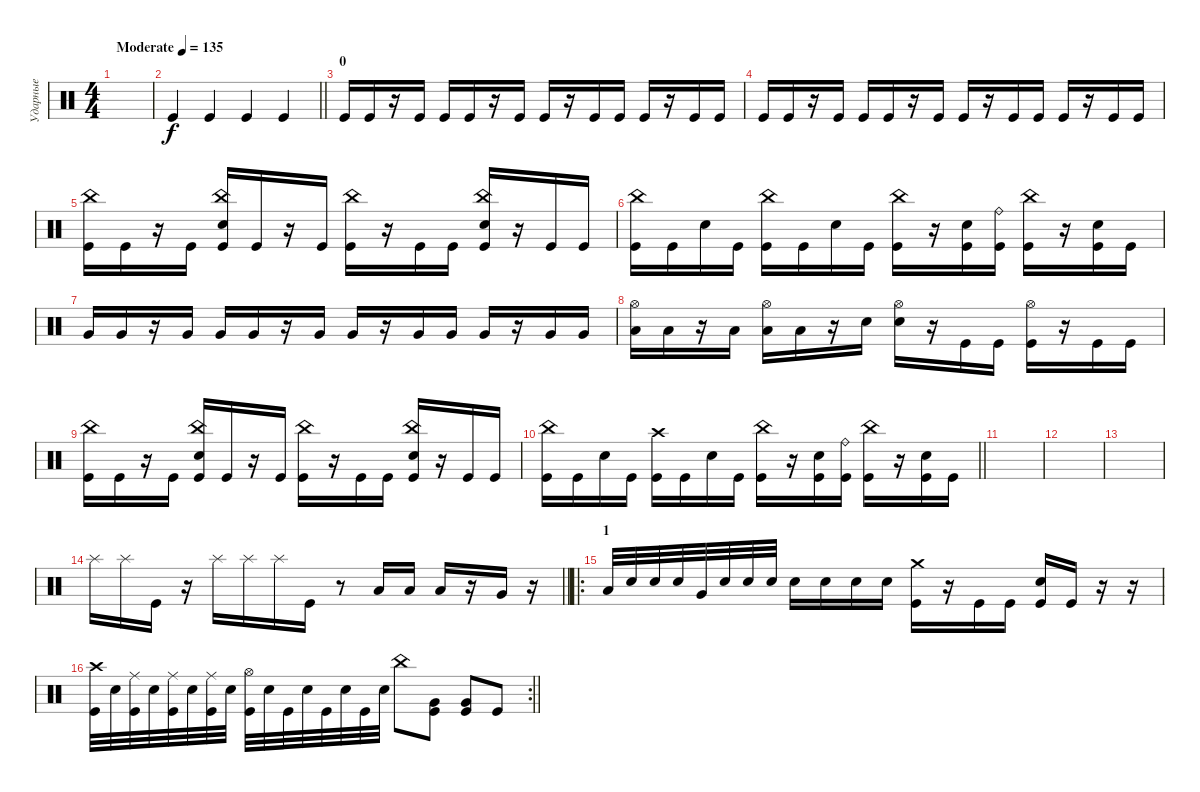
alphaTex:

\track ("Ударные" "Ударные") {instrument percussion}
\staff {score}
\articulation defaults
\ts (4 4)
\tempo (135 "Moderate")
\clef neutral
\ks c
|
\barLineRight lightlight "Kick (hit)".4 "Kick (hit)".4 "Kick (hit)".4 "Kick (hit)".4
|
\section ("" "0")
"Kick (hit)".16 "Kick (hit)".16 r.16 "Kick (hit)".16 "Kick (hit)".16 "Kick (hit)".16 r.16 "Kick (hit)".16 "Kick (hit)".16 r.16 "Kick (hit)".16 "Kick (hit)".16 "Kick (hit)".16 r.16 "Kick (hit)".16 "Kick (hit)".16 |
"Kick (hit)".16 "Kick (hit)".16 r.16 "Kick (hit)".16 "Kick (hit)".16 "Kick (hit)".16 r.16 "Kick (hit)".16 "Kick (hit)".16 r.16 "Kick (hit)".16 "Kick (hit)".16 "Kick (hit)".16 r.16 "Kick (hit)".16 "Kick (hit)".16 |
("China (hit)" "Kick (hit)").16 "Kick (hit)".16 r.16 "Kick (hit)".16 ("China (hit)" "Electric Snare (hit)" "Kick (hit)").16 "Kick (hit)".16 r.16 "Kick (hit)".16 ("China (hit)" "Kick (hit)").16 r.16 "Kick (hit)".16 "Kick (hit)".16 ("China (hit)" "Electric Snare (hit)" "Kick (hit)").16 r.16 "Kick (hit)".16 "Kick (hit)".16 |
("China (hit)" "Kick (hit)").16 "Kick (hit)".16 "Electric Snare (hit)".16 "Kick (hit)".16 ("China (hit)" "Kick (hit)").16 "Kick (hit)".16 "Electric Snare (hit)".16 "Kick (hit)".16 ("China (hit)" "Kick (hit)").16 r.16 ("Electric Snare (hit)" "Kick (hit)").16 ("Ride (bell)" "Kick (hit)").16 ("China (hit)" "Kick (hit)").16 r.16 ("Electric Snare (hit)" "Kick (hit)").16 "Kick (hit)".16 |
"Very Low Tom (hit)".16 "Very Low Tom (hit)".16 r.16 "Very Low Tom (hit)".16 "Very Low Tom (hit)".16 "Very Low Tom (hit)".16 r.16 "Very Low Tom (hit)".16 "Very Low Tom (hit)".16 r.16 "Very Low Tom (hit)".16 "Very Low Tom (hit)".16 "Very Low Tom (hit)".16 r.16 "Very Low Tom (hit)".16 "Very Low Tom (hit)".16 |
("Hi-Hat (open)" "Low Floor Tom (hit)").16 "Low Floor Tom (hit)".16 r.16 "Low Floor Tom (hit)".16 ("Hi-Hat (open)" "Low Floor Tom (hit)").16 "Low Floor Tom (hit)".16 r.16 "Electric Snare (hit)".16 ("Hi-Hat (open)" "Electric Snare (hit)").16 r.16 "Kick (hit)".16 "Kick (hit)".16 ("Hi-Hat (open)" "Kick (hit)").16 r.16 "Kick (hit)".16 "Kick (hit)".16 |
("China (hit)" "Kick (hit)").16 "Kick (hit)".16 r.16 "Kick (hit)".16 ("China (hit)" "Electric Snare (hit)" "Kick (hit)").16 "Kick (hit)".16 r.16 "Kick (hit)".16 ("China (hit)" "Kick (hit)").16 r.16 "Kick (hit)".16 "Kick (hit)".16 ("China (hit)" "Electric Snare (hit)" "Kick (hit)").16 r.16 "Kick (hit)".16 "Kick (hit)".16 |
\barLineRight lightlight
("China (hit)" "Kick (hit)").16 "Kick (hit)".16 "Electric Snare (hit)".16 "Kick (hit)".16 ("Crash high (hit)" "Kick (hit)").16 "Kick (hit)".16 "Electric Snare (hit)".16 "Kick (hit)".16 ("China (hit)" "Kick (hit)").16 r.16 ("Electric Snare (hit)" "Kick (hit)").16 ("Ride (bell)" "Kick (hit)").16 ("China (hit)" "Kick (hit)").16 r.16 ("Electric Snare (hit)" "Kick (hit)").16 "Kick (hit)".16 |
\section ("" " ")
|
|
|
\barLineRight lightlight "Splash (hit)".16 "Splash (hit)".16 "Kick (hit)".16
r.16 "Splash (hit)".16 "Splash (hit)".16 "Splash (hit)".16 "Kick (hit)".16 r.8 "Low Tom (hit)".16 "Low Tom (hit)".16 "Low Tom (hit)".16 r.16 "Very Low Tom (hit)".16 r.16 |
\ro
\section ("" "1")
"Low Tom (hit)".32 "Electric Snare (hit)".32 "Electric Snare (hit)".32 "Electric Snare (hit)".32 "Very Low Tom (hit)".32 "Electric Snare (hit)".32 "Electric Snare (hit)".32 "Electric Snare (hit)".32 "Electric Snare (hit)".16 "Electric Snare (hit)".16 "Electric Snare (hit)".16 "Electric Snare (hit)".16 ("Crash medium (hit)" "Kick (hit)").16 r.16 "Kick (hit)".16 "Kick (hit)".16 ("Electric Snare (hit)" "Kick (hit)").16 "Kick (hit)".16 r.16 r.16 |
\rc 2
\barLineRight lightlight
("Crash high (hit)" "Kick (hit)").32 "Electric Snare (hit)".32 ("Ride (middle)" "Kick (hit)").32 "Electric Snare (hit)".32 ("Ride (middle)" "Kick (hit)").32 "Electric Snare (hit)".32 ("Ride (middle)" "Kick (hit)").32 "Electric Snare (hit)".32 ("Hi-Hat (open)" "Kick (hit)").32 "Electric Snare (hit)".32 "Kick (hit)".32 "Electric Snare (hit)".32 "Kick (hit)".32 "Electric Snare (hit)".32 "Kick (hit)".32 "Electric Snare (hit)".32 "China (hit)".8 ("Very Low Tom (hit)" "Kick (hit)").8 ("Very Low Tom (hit)" "Kick (hit)").8 "Kick (hit)".8
